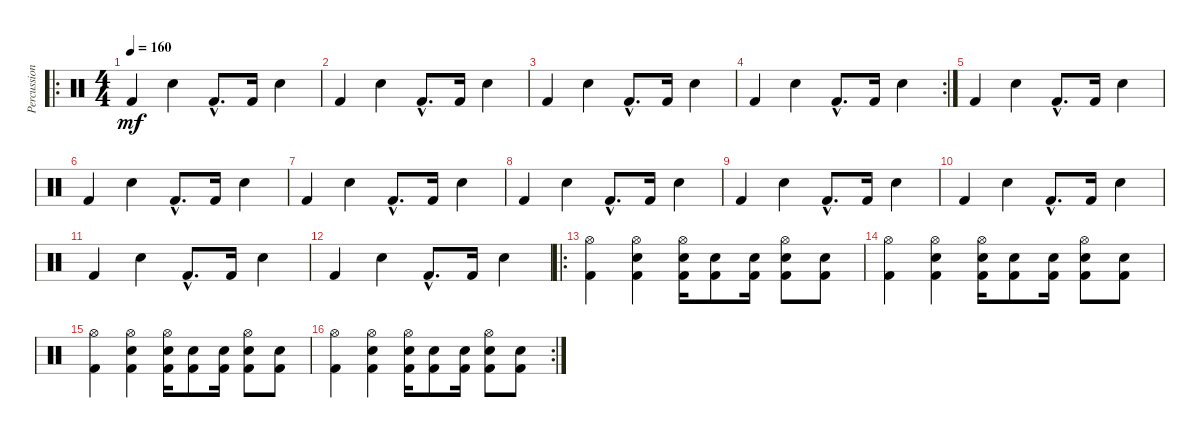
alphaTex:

\track ("Percussion" "Percussion") {instrument percussion}
\staff {score}
\articulation defaults
\ro
\ts (4 4)
\tempo 160
\clef neutral
\ks c "Kick (hit) 2".4{dy mf} "Electric Snare (hit)".4 "Kick (hit) 2"{hac}.8{d} "Kick (hit) 2".16 "Electric Snare (hit)".4
|
"Kick (hit) 2".4 "Electric Snare (hit)".4 "Kick (hit) 2"{hac}.8{d} "Kick (hit) 2".16 "Electric Snare (hit)".4 |
"Kick (hit) 2".4 "Electric Snare (hit)".4 "Kick (hit) 2"{hac}.8{d} "Kick (hit) 2".16 "Electric Snare (hit)".4 |
\rc 2 "Kick (hit) 2".4 "Electric Snare (hit)".4 "Kick (hit) 2"{hac}.8{d} "Kick (hit) 2".16 "Electric Snare (hit)".4
|
"Kick (hit) 2".4 "Electric Snare (hit)".4 "Kick (hit) 2"{hac}.8{d} "Kick (hit) 2".16 "Electric Snare (hit)".4 |
"Kick (hit) 2".4 "Electric Snare (hit)".4 "Kick (hit) 2"{hac}.8{d} "Kick (hit) 2".16 "Electric Snare (hit)".4 |
"Kick (hit) 2".4 "Electric Snare (hit)".4 "Kick (hit) 2"{hac}.8{d} "Kick (hit) 2".16 "Electric Snare (hit)".4 |
"Kick (hit) 2".4 "Electric Snare (hit)".4 "Kick (hit) 2"{hac}.8{d} "Kick (hit) 2".16 "Electric Snare (hit)".4 |
"Kick (hit) 2".4 "Electric Snare (hit)".4 "Kick (hit) 2"{hac}.8{d} "Kick (hit) 2".16 "Electric Snare (hit)".4 |
"Kick (hit) 2".4 "Electric Snare (hit)".4 "Kick (hit) 2"{hac}.8{d} "Kick (hit) 2".16 "Electric Snare (hit)".4 |
"Kick (hit) 2".4 "Electric Snare (hit)".4 "Kick (hit) 2"{hac}.8{d} "Kick (hit) 2".16 "Electric Snare (hit)".4 |
"Kick (hit) 2".4 "Electric Snare (hit)".4 "Kick (hit) 2"{hac}.8{d} "Kick (hit) 2".16 "Electric Snare (hit)".4 |
\ro
("Hi-Hat (open)" "Kick (hit) 2").4 ("Hi-Hat (open)" "Electric Snare (hit)" "Kick (hit) 2").4 ("Hi-Hat (open)" "Electric Snare (hit)" "Kick (hit) 2").16 ("Electric Snare (hit)" "Kick (hit) 2").8 ("Electric Snare (hit)" "Kick (hit) 2").16 ("Hi-Hat (open)" "Electric Snare (hit)" "Kick (hit) 2").8 ("Electric Snare (hit)" "Kick (hit) 2").8 |
("Hi-Hat (open)" "Kick (hit) 2").4 ("Hi-Hat (open)" "Electric Snare (hit)" "Kick (hit) 2").4 ("Hi-Hat (open)" "Electric Snare (hit)" "Kick (hit) 2").16 ("Electric Snare (hit)" "Kick (hit) 2").8 ("Electric Snare (hit)" "Kick (hit) 2").16 ("Hi-Hat (open)" "Electric Snare (hit)" "Kick (hit) 2").8 ("Electric Snare (hit)" "Kick (hit) 2").8 |
("Hi-Hat (open)" "Kick (hit) 2").4 ("Hi-Hat (open)" "Electric Snare (hit)" "Kick (hit) 2").4 ("Hi-Hat (open)" "Electric Snare (hit)" "Kick (hit) 2").16 ("Electric Snare (hit)" "Kick (hit) 2").8 ("Electric Snare (hit)" "Kick (hit) 2").16 ("Hi-Hat (open)" "Electric Snare (hit)" "Kick (hit) 2").8 ("Electric Snare (hit)" "Kick (hit) 2").8 |
\rc 2
("Hi-Hat (open)" "Kick (hit) 2").4 ("Hi-Hat (open)" "Electric Snare (hit)" "Kick (hit) 2").4 ("Hi-Hat (open)" "Electric Snare (hit)" "Kick (hit) 2").16 ("Electric Snare (hit)" "Kick (hit) 2").8 ("Electric Snare (hit)" "Kick (hit) 2").16 ("Hi-Hat (open)" "Electric Snare (hit)" "Kick (hit) 2").8 ("Electric Snare (hit)" "Kick (hit) 2").8
